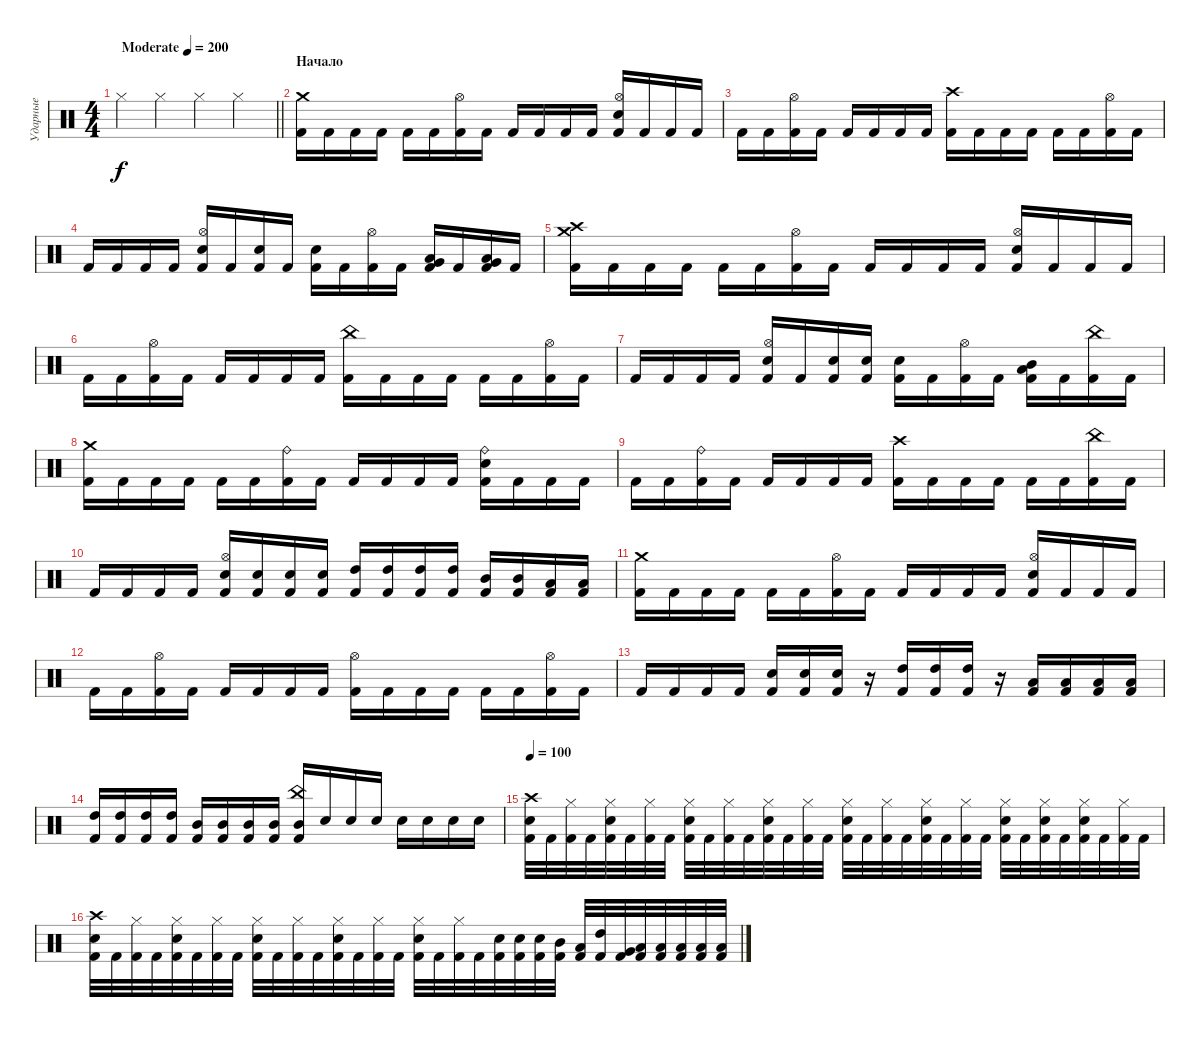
\track ("Ударные" "Ударные") {instrument percussion}
\staff {score}
\articulation defaults
\ts (4 4)
\tempo (200 "Moderate")
\clef neutral
\barLineRight lightlight
\ks c "Hi-Hat (closed)".4{dy f} "Hi-Hat (closed)".4 "Hi-Hat (closed)".4 "Hi-Hat (closed)".4
|
\section ("" "Начало")
("Crash medium (hit)" "Kick (hit) 2").16 "Kick (hit) 2".16 "Kick (hit) 2".16 "Kick (hit) 2".16 "Kick (hit) 2".16 "Kick (hit) 2".16 ("Hi-Hat (open)" "Kick (hit) 2").16 "Kick (hit) 2".16 "Kick (hit) 2".16 "Kick (hit) 2".16 "Kick (hit) 2".16 "Kick (hit) 2".16 ("Hi-Hat (open)" "Snare (hit) 2" "Kick (hit) 2").16 "Kick (hit) 2".16 "Kick (hit) 2".16 "Kick (hit) 2".16 |
"Kick (hit) 2".16 "Kick (hit) 2".16 ("Hi-Hat (open)" "Kick (hit) 2").16 "Kick (hit) 2".16 "Kick (hit) 2".16 "Kick (hit) 2".16 "Kick (hit) 2".16 "Kick (hit) 2".16 ("Crash high (hit)" "Kick (hit) 2").16 "Kick (hit) 2".16 "Kick (hit) 2".16 "Kick (hit) 2".16 "Kick (hit) 2".16 "Kick (hit) 2".16 ("Hi-Hat (open)" "Kick (hit) 2").16 "Kick (hit) 2".16 |
"Kick (hit) 2".16 "Kick (hit) 2".16 "Kick (hit) 2".16 "Kick (hit) 2".16 ("Hi-Hat (open)" "Snare (hit) 2" "Kick (hit) 2").16 "Kick (hit) 2".16 ("Snare (hit) 2" "Kick (hit) 2").16 "Kick (hit) 2".16 ("Snare (hit) 2" "Kick (hit) 2").16 "Kick (hit) 2".16 ("Hi-Hat (open)" "Kick (hit) 2").16 "Kick (hit) 2".16 ("Low Tom (hit)" "Very Low Tom (hit)" "Kick (hit) 2").16 "Kick (hit) 2".16 ("Very Low Tom (hit)" "Low Floor Tom (hit)" "Kick (hit) 2").16 "Kick (hit) 2".16 |
("Crash medium (hit)" "Crash high (hit)" "Kick (hit) 2").16 "Kick (hit) 2".16 "Kick (hit) 2".16 "Kick (hit) 2".16 "Kick (hit) 2".16 "Kick (hit) 2".16 ("Hi-Hat (open)" "Kick (hit) 2").16 "Kick (hit) 2".16 "Kick (hit) 2".16 "Kick (hit) 2".16 "Kick (hit) 2".16 "Kick (hit) 2".16 ("Hi-Hat (open)" "Snare (hit) 2" "Kick (hit) 2").16 "Kick (hit) 2".16 "Kick (hit) 2".16 "Kick (hit) 2".16 |
"Kick (hit) 2".16 "Kick (hit) 2".16 ("Hi-Hat (open)" "Kick (hit) 2").16 "Kick (hit) 2".16 "Kick (hit) 2".16 "Kick (hit) 2".16 "Kick (hit) 2".16 "Kick (hit) 2".16 ("China (hit)" "Kick (hit) 2").16 "Kick (hit) 2".16 "Kick (hit) 2".16 "Kick (hit) 2".16 "Kick (hit) 2".16 "Kick (hit) 2".16 ("Hi-Hat (open)" "Kick (hit) 2").16 "Kick (hit) 2".16 |
"Kick (hit) 2".16 "Kick (hit) 2".16 "Kick (hit) 2".16 "Kick (hit) 2".16 ("Hi-Hat (open)" "Snare (hit) 2" "Kick (hit) 2").16 "Kick (hit) 2".16 ("Snare (hit) 2" "Kick (hit) 2").16 ("Snare (hit) 2" "Kick (hit) 2").16 ("Snare (hit) 2" "Kick (hit) 2").16 "Kick (hit) 2".16 ("Hi-Hat (open)" "Kick (hit) 2").16 "Kick (hit) 2".16 ("Mid Tom (hit)" "Low Tom (hit)" "Kick (hit) 2").16 "Kick (hit) 2".16 ("China (hit)" "Kick (hit) 2").16 "Kick (hit) 2".16 |
("Crash medium (hit)" "Kick (hit) 2").16 "Kick (hit) 2".16 "Kick (hit) 2".16 "Kick (hit) 2".16 "Kick (hit) 2".16 "Kick (hit) 2".16 ("Ride (bell)" "Kick (hit) 2").16 "Kick (hit) 2".16 "Kick (hit) 2".16 "Kick (hit) 2".16 "Kick (hit) 2".16 "Kick (hit) 2".16 ("Ride (bell)" "Snare (hit) 2" "Kick (hit) 2").16 "Kick (hit) 2".16 "Kick (hit) 2".16 "Kick (hit) 2".16 |
"Kick (hit) 2".16 "Kick (hit) 2".16 ("Ride (bell)" "Kick (hit) 2").16 "Kick (hit) 2".16 "Kick (hit) 2".16 "Kick (hit) 2".16 "Kick (hit) 2".16 "Kick (hit) 2".16 ("Crash high (hit)" "Kick (hit) 2").16 "Kick (hit) 2".16 "Kick (hit) 2".16 "Kick (hit) 2".16 "Kick (hit) 2".16 "Kick (hit) 2".16 ("China (hit)" "Kick (hit) 2").16 "Kick (hit) 2".16 |
"Kick (hit) 2".16 "Kick (hit) 2".16 "Kick (hit) 2".16 "Kick (hit) 2".16 ("Hi-Hat (open)" "Snare (hit) 2" "Kick (hit) 2").16 ("Snare (hit) 2" "Kick (hit) 2").16 ("Snare (hit) 2" "Kick (hit) 2").16 ("Snare (hit) 2" "Kick (hit) 2").16 ("High Tom (hit)" "Kick (hit) 2").16 ("High Tom (hit)" "Kick (hit) 2").16 ("High Tom (hit)" "Kick (hit) 2").16 ("High Tom (hit)" "Kick (hit) 2").16 ("Mid Tom (hit)" "Kick (hit) 2").16 ("Mid Tom (hit)" "Kick (hit) 2").16 ("Low Tom (hit)" "Kick (hit) 2").16 ("Low Tom (hit)" "Kick (hit) 2").16 |
("Crash medium (hit)" "Kick (hit) 2").16 "Kick (hit) 2".16 "Kick (hit) 2".16 "Kick (hit) 2".16 "Kick (hit) 2".16 "Kick (hit) 2".16 ("Hi-Hat (open)" "Kick (hit) 2").16 "Kick (hit) 2".16 "Kick (hit) 2".16 "Kick (hit) 2".16 "Kick (hit) 2".16 "Kick (hit) 2".16 ("Hi-Hat (open)" "Snare (hit) 2" "Kick (hit) 2").16 "Kick (hit) 2".16 "Kick (hit) 2".16 "Kick (hit) 2".16 |
"Kick (hit) 2".16 "Kick (hit) 2".16 ("Hi-Hat (open)" "Kick (hit) 2").16 "Kick (hit) 2".16 "Kick (hit) 2".16 "Kick (hit) 2".16 "Kick (hit) 2".16 "Kick (hit) 2".16 ("Hi-Hat (open)" "Kick (hit) 2").16 "Kick (hit) 2".16 "Kick (hit) 2".16 "Kick (hit) 2".16 "Kick (hit) 2".16 "Kick (hit) 2".16 ("Hi-Hat (open)" "Kick (hit) 2").16 "Kick (hit) 2".16 |
"Kick (hit) 2".16 "Kick (hit) 2".16 "Kick (hit) 2".16 "Kick (hit) 2".16 ("Snare (hit) 2" "Kick (hit) 2").16 ("Snare (hit) 2" "Kick (hit) 2").16 ("Snare (hit) 2" "Kick (hit) 2").16 r.16 ("High Tom (hit)" "Kick (hit) 2").16 ("High Tom (hit)" "Kick (hit) 2").16 ("High Tom (hit)" "Kick (hit) 2").16 r.16 ("Low Tom (hit)" "Kick (hit) 2").16 ("Low Tom (hit)" "Kick (hit) 2").16 ("Low Tom (hit)" "Kick (hit) 2").16 ("Low Tom (hit)" "Kick (hit) 2").16 |
("High Tom (hit)" "Kick (hit) 2").16 ("High Tom (hit)" "Kick (hit) 2").16 ("High Tom (hit)" "Kick (hit) 2").16 ("High Tom (hit)" "Kick (hit) 2").16 ("Mid Tom (hit)" "Kick (hit) 2").16 ("Mid Tom (hit)" "Kick (hit) 2").16 ("Mid Tom (hit)" "Kick (hit) 2").16 ("Mid Tom (hit)" "Kick (hit) 2").16 ("China (hit)" "Mid Tom (hit)" "Kick (hit) 2").16 "Snare (hit)".16 "Snare (hit)".16 "Snare (hit)".16 "Snare (hit)".16 "Snare (hit)".16 "Snare (hit)".16 "Snare (hit)".16 |
\tempo 100
("Crash high (hit)" "Snare (hit) 2" "Kick (hit) 2").32 "Kick (hit) 2".32 ("Hi-Hat (closed)" "Kick (hit) 2").32 "Kick (hit) 2".32 ("Hi-Hat (closed)" "Snare (hit) 2" "Kick (hit) 2").32 "Kick (hit) 2".32 ("Hi-Hat (closed)" "Kick (hit) 2").32 "Kick (hit) 2".32 ("Hi-Hat (closed)" "Snare (hit) 2" "Kick (hit) 2").32 "Kick (hit) 2".32 ("Hi-Hat (closed)" "Kick (hit) 2").32 "Kick (hit) 2".32 ("Hi-Hat (closed)" "Snare (hit) 2" "Kick (hit) 2").32 "Kick (hit) 2".32 ("Hi-Hat (closed)" "Kick (hit) 2").32 "Kick (hit) 2".32 ("Hi-Hat (closed)" "Snare (hit) 2" "Kick (hit) 2").32 "Kick (hit) 2".32 ("Hi-Hat (closed)" "Kick (hit) 2").32 "Kick (hit) 2".32 ("Hi-Hat (closed)" "Snare (hit) 2" "Kick (hit) 2").32 "Kick (hit) 2".32 ("Hi-Hat (closed)" "Kick (hit) 2").32 "Kick (hit) 2".32 ("Hi-Hat (closed)" "Snare (hit) 2" "Kick (hit) 2").32 "Kick (hit) 2".32 ("Hi-Hat (closed)" "Snare (hit) 2" "Kick (hit) 2").32 "Kick (hit) 2".32 ("Hi-Hat (closed)" "Snare (hit) 2" "Kick (hit) 2").32 "Kick (hit) 2".32 ("Hi-Hat (closed)" "Kick (hit) 2").32 "Kick (hit) 2".32 |
("Crash high (hit)" "Snare (hit) 2" "Kick (hit) 2").32 "Kick (hit) 2".32 ("Hi-Hat (closed)" "Kick (hit) 2").32 "Kick (hit) 2".32 ("Hi-Hat (closed)" "Snare (hit) 2" "Kick (hit) 2").32 "Kick (hit) 2".32 ("Hi-Hat (closed)" "Kick (hit) 2").32 "Kick (hit) 2".32 ("Hi-Hat (closed)" "Snare (hit) 2" "Kick (hit) 2").32 "Kick (hit) 2".32 ("Hi-Hat (closed)" "Kick (hit) 2").32 "Kick (hit) 2".32 ("Hi-Hat (closed)" "Snare (hit) 2" "Kick (hit) 2").32 "Kick (hit) 2".32 ("Hi-Hat (closed)" "Kick (hit) 2").32 "Kick (hit) 2".32 ("Hi-Hat (closed)" "Snare (hit) 2" "Kick (hit) 2").32 "Kick (hit) 2".32 ("Hi-Hat (closed)" "Kick (hit) 2").32 "Kick (hit) 2".32 ("Snare (hit) 2" "Kick (hit) 2").32 ("Snare (hit) 2" "Kick (hit) 2").32 ("Snare (hit) 2" "Kick (hit) 2").32 ("Mid Tom (hit)" "Kick (hit) 2").32 ("Low Tom (hit)" "Kick (hit) 2").32 ("High Tom (hit)" "Kick (hit) 2").32 ("Very Low Tom (hit)" "Kick (hit) 2").32 ("Low Floor Tom (hit)" "Kick (hit) 2").32 ("Low Tom (hit)" "Kick (hit) 2").32 ("Low Tom (hit)" "Kick (hit) 2").32 ("Low Tom (hit)" "Kick (hit) 2").32 ("Low Tom (hit)" "Kick (hit) 2").32
